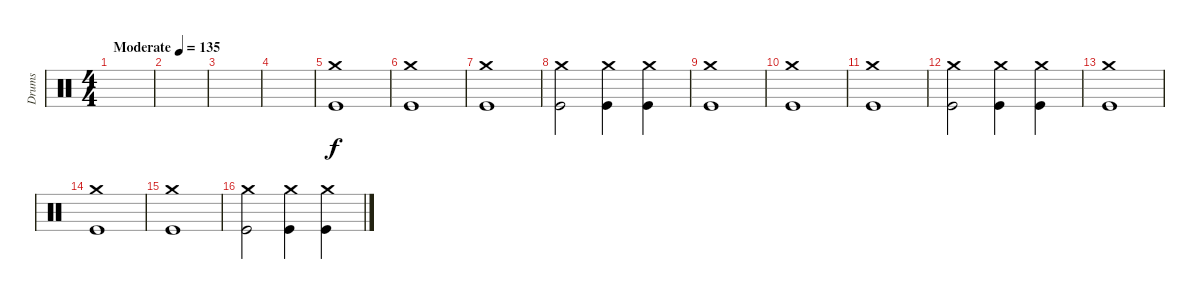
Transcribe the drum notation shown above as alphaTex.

\track ("Drums" "Drums") {instrument percussion}
\staff {score}
\articulation defaults
\ts (4 4)
\tempo (135 "Moderate")
\clef neutral
\ks c
|
|
|
|
("Kick (hit)" "Crash medium (hit)").1 |
("Kick (hit)" "Crash medium (hit)").1 |
("Kick (hit)" "Crash medium (hit)").1 |
("Kick (hit)" "Crash medium (hit)").2 ("Kick (hit)" "Crash medium (hit)").4 ("Kick (hit)" "Crash medium (hit)").4 |
("Kick (hit)" "Crash medium (hit)").1 |
("Kick (hit)" "Crash medium (hit)").1 |
("Kick (hit)" "Crash medium (hit)").1 |
("Kick (hit)" "Crash medium (hit)").2 ("Kick (hit)" "Crash medium (hit)").4 ("Kick (hit)" "Crash medium (hit)").4 |
("Kick (hit)" "Crash medium (hit)").1 |
("Kick (hit)" "Crash medium (hit)").1 |
("Kick (hit)" "Crash medium (hit)").1 |
("Kick (hit)" "Crash medium (hit)").2 ("Kick (hit)" "Crash medium (hit)").4 ("Kick (hit)" "Crash medium (hit)").4
